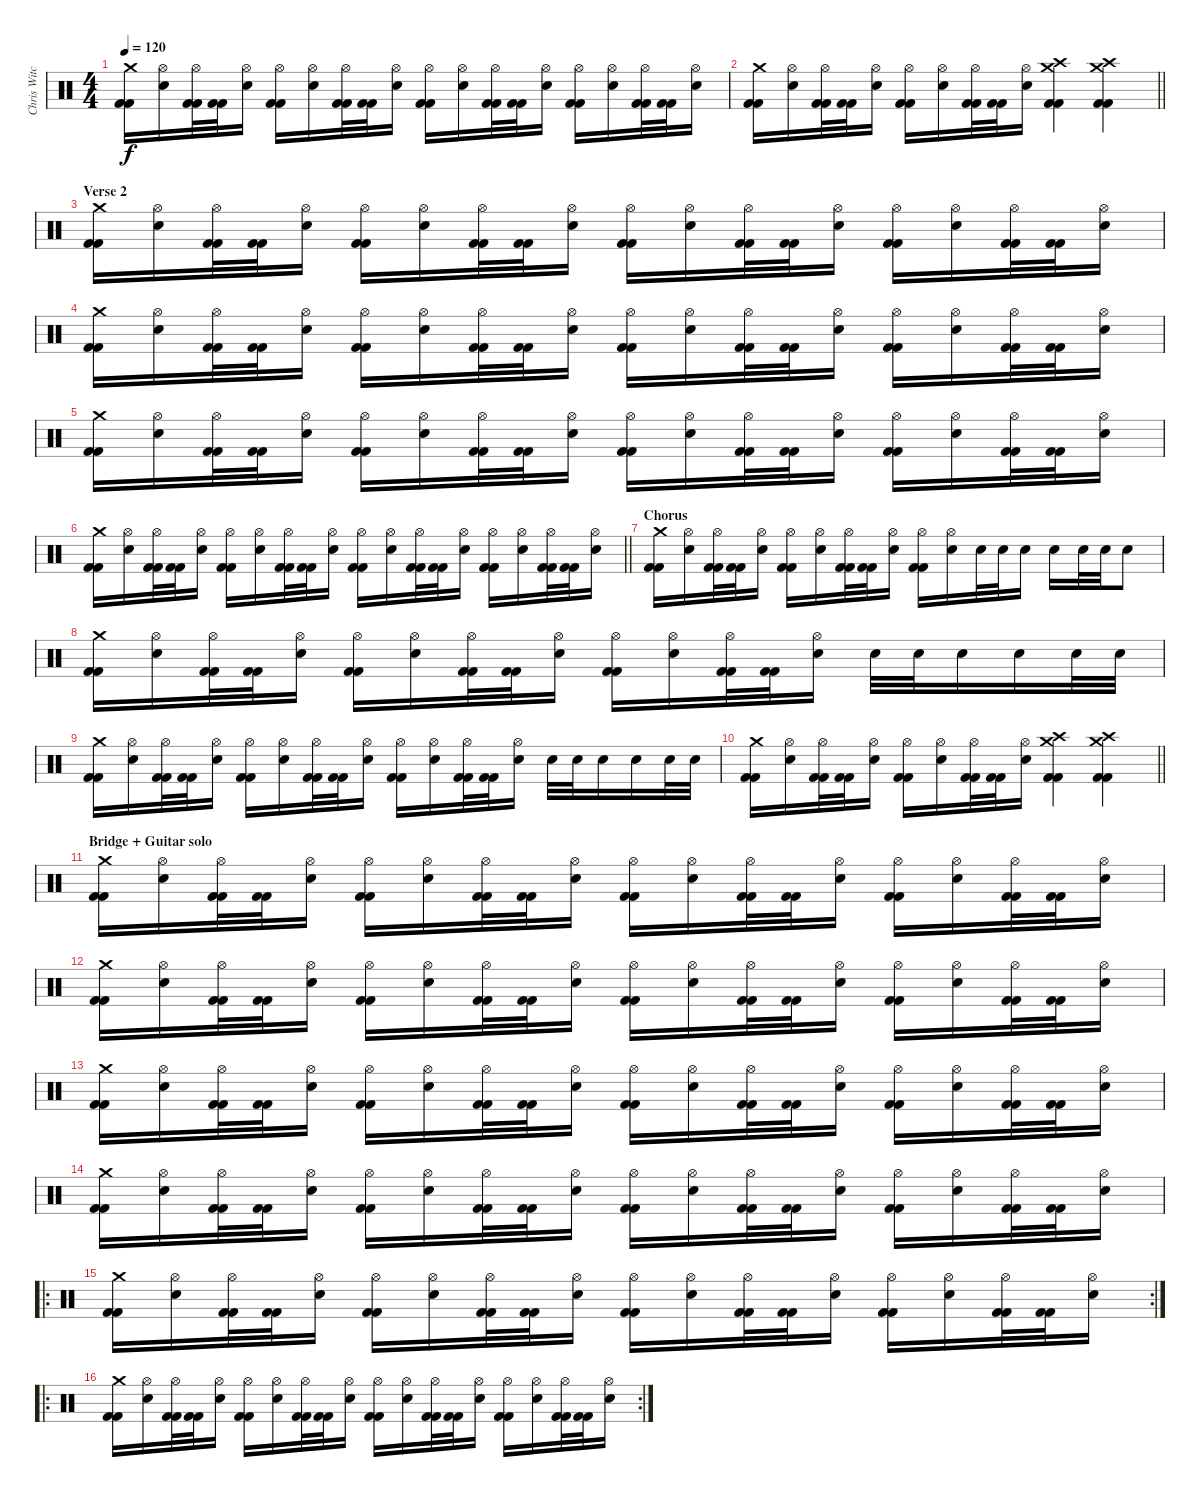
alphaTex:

\track ("Chris Witchhunter" "Chris Witc") {instrument percussion}
\staff {score}
\articulation defaults
\ts (4 4)
\tempo 120
\clef neutral
\ks c
("Crash medium (hit)" "Kick (hit) 2" "Kick (hit) 2").16{dy f} ("Hi-Hat (open)" "Snare (hit) 2").16 ("Hi-Hat (open)" "Kick (hit) 2" "Kick (hit) 2").32 ("Kick (hit) 2" "Kick (hit) 2").32 ("Hi-Hat (open)" "Snare (hit) 2").16 ("Hi-Hat (open)" "Kick (hit) 2" "Kick (hit) 2").16 ("Hi-Hat (open)" "Snare (hit) 2").16 ("Hi-Hat (open)" "Kick (hit) 2" "Kick (hit) 2").32 ("Kick (hit) 2" "Kick (hit) 2").32 ("Hi-Hat (open)" "Snare (hit) 2").16 ("Hi-Hat (open)" "Kick (hit) 2" "Kick (hit) 2").16 ("Hi-Hat (open)" "Snare (hit) 2").16 ("Hi-Hat (open)" "Kick (hit) 2" "Kick (hit) 2").32 ("Kick (hit) 2" "Kick (hit) 2").32 ("Hi-Hat (open)" "Snare (hit) 2").16 ("Hi-Hat (open)" "Kick (hit) 2" "Kick (hit) 2").16 ("Hi-Hat (open)" "Snare (hit) 2").16 ("Hi-Hat (open)" "Kick (hit) 2" "Kick (hit) 2").32 ("Kick (hit) 2" "Kick (hit) 2").32 ("Hi-Hat (open)" "Snare (hit) 2").16 |
\barLineRight lightlight
("Crash medium (hit)" "Kick (hit) 2" "Kick (hit) 2").16 ("Hi-Hat (open)" "Snare (hit) 2").16 ("Hi-Hat (open)" "Kick (hit) 2" "Kick (hit) 2").32 ("Kick (hit) 2" "Kick (hit) 2").32 ("Hi-Hat (open)" "Snare (hit) 2").16 ("Hi-Hat (open)" "Kick (hit) 2" "Kick (hit) 2").16 ("Hi-Hat (open)" "Snare (hit) 2").16 ("Hi-Hat (open)" "Kick (hit) 2" "Kick (hit) 2").32 ("Kick (hit) 2" "Kick (hit) 2").32 ("Hi-Hat (open)" "Snare (hit) 2").16 ("Crash high (hit)" "Crash medium (hit)" "Kick (hit) 2" "Kick (hit) 2").4 ("Crash high (hit)" "Crash medium (hit)" "Kick (hit) 2" "Kick (hit) 2").4 |
\section ("" "Verse 2")
("Crash medium (hit)" "Kick (hit) 2" "Kick (hit) 2").16 ("Hi-Hat (open)" "Snare (hit) 2").16 ("Hi-Hat (open)" "Kick (hit) 2" "Kick (hit) 2").32 ("Kick (hit) 2" "Kick (hit) 2").32 ("Hi-Hat (open)" "Snare (hit) 2").16 ("Hi-Hat (open)" "Kick (hit) 2" "Kick (hit) 2").16 ("Hi-Hat (open)" "Snare (hit) 2").16 ("Hi-Hat (open)" "Kick (hit) 2" "Kick (hit) 2").32 ("Kick (hit) 2" "Kick (hit) 2").32 ("Hi-Hat (open)" "Snare (hit) 2").16 ("Hi-Hat (open)" "Kick (hit) 2" "Kick (hit) 2").16 ("Hi-Hat (open)" "Snare (hit) 2").16 ("Hi-Hat (open)" "Kick (hit) 2" "Kick (hit) 2").32 ("Kick (hit) 2" "Kick (hit) 2").32 ("Hi-Hat (open)" "Snare (hit) 2").16 ("Hi-Hat (open)" "Kick (hit) 2" "Kick (hit) 2").16 ("Hi-Hat (open)" "Snare (hit) 2").16 ("Hi-Hat (open)" "Kick (hit) 2" "Kick (hit) 2").32 ("Kick (hit) 2" "Kick (hit) 2").32 ("Hi-Hat (open)" "Snare (hit) 2").16 |
("Crash medium (hit)" "Kick (hit) 2" "Kick (hit) 2").16 ("Hi-Hat (open)" "Snare (hit) 2").16 ("Hi-Hat (open)" "Kick (hit) 2" "Kick (hit) 2").32 ("Kick (hit) 2" "Kick (hit) 2").32 ("Hi-Hat (open)" "Snare (hit) 2").16 ("Hi-Hat (open)" "Kick (hit) 2" "Kick (hit) 2").16 ("Hi-Hat (open)" "Snare (hit) 2").16 ("Hi-Hat (open)" "Kick (hit) 2" "Kick (hit) 2").32 ("Kick (hit) 2" "Kick (hit) 2").32 ("Hi-Hat (open)" "Snare (hit) 2").16 ("Hi-Hat (open)" "Kick (hit) 2" "Kick (hit) 2").16 ("Hi-Hat (open)" "Snare (hit) 2").16 ("Hi-Hat (open)" "Kick (hit) 2" "Kick (hit) 2").32 ("Kick (hit) 2" "Kick (hit) 2").32 ("Hi-Hat (open)" "Snare (hit) 2").16 ("Hi-Hat (open)" "Kick (hit) 2" "Kick (hit) 2").16 ("Hi-Hat (open)" "Snare (hit) 2").16 ("Hi-Hat (open)" "Kick (hit) 2" "Kick (hit) 2").32 ("Kick (hit) 2" "Kick (hit) 2").32 ("Hi-Hat (open)" "Snare (hit) 2").16 |
("Crash medium (hit)" "Kick (hit) 2" "Kick (hit) 2").16 ("Hi-Hat (open)" "Snare (hit) 2").16 ("Hi-Hat (open)" "Kick (hit) 2" "Kick (hit) 2").32 ("Kick (hit) 2" "Kick (hit) 2").32 ("Hi-Hat (open)" "Snare (hit) 2").16 ("Hi-Hat (open)" "Kick (hit) 2" "Kick (hit) 2").16 ("Hi-Hat (open)" "Snare (hit) 2").16 ("Hi-Hat (open)" "Kick (hit) 2" "Kick (hit) 2").32 ("Kick (hit) 2" "Kick (hit) 2").32 ("Hi-Hat (open)" "Snare (hit) 2").16 ("Hi-Hat (open)" "Kick (hit) 2" "Kick (hit) 2").16 ("Hi-Hat (open)" "Snare (hit) 2").16 ("Hi-Hat (open)" "Kick (hit) 2" "Kick (hit) 2").32 ("Kick (hit) 2" "Kick (hit) 2").32 ("Hi-Hat (open)" "Snare (hit) 2").16 ("Hi-Hat (open)" "Kick (hit) 2" "Kick (hit) 2").16 ("Hi-Hat (open)" "Snare (hit) 2").16 ("Hi-Hat (open)" "Kick (hit) 2" "Kick (hit) 2").32 ("Kick (hit) 2" "Kick (hit) 2").32 ("Hi-Hat (open)" "Snare (hit) 2").16 |
\barLineRight lightlight
("Crash medium (hit)" "Kick (hit) 2" "Kick (hit) 2").16 ("Hi-Hat (open)" "Snare (hit) 2").16 ("Hi-Hat (open)" "Kick (hit) 2" "Kick (hit) 2").32 ("Kick (hit) 2" "Kick (hit) 2").32 ("Hi-Hat (open)" "Snare (hit) 2").16 ("Hi-Hat (open)" "Kick (hit) 2" "Kick (hit) 2").16 ("Hi-Hat (open)" "Snare (hit) 2").16 ("Hi-Hat (open)" "Kick (hit) 2" "Kick (hit) 2").32 ("Kick (hit) 2" "Kick (hit) 2").32 ("Hi-Hat (open)" "Snare (hit) 2").16 ("Hi-Hat (open)" "Kick (hit) 2" "Kick (hit) 2").16 ("Hi-Hat (open)" "Snare (hit) 2").16 ("Hi-Hat (open)" "Kick (hit) 2" "Kick (hit) 2").32 ("Kick (hit) 2" "Kick (hit) 2").32 ("Hi-Hat (open)" "Snare (hit) 2").16 ("Hi-Hat (open)" "Kick (hit) 2" "Kick (hit) 2").16 ("Hi-Hat (open)" "Snare (hit) 2").16 ("Hi-Hat (open)" "Kick (hit) 2" "Kick (hit) 2").32 ("Kick (hit) 2" "Kick (hit) 2").32 ("Hi-Hat (open)" "Snare (hit) 2").16 |
\section ("" "Chorus")
("Crash medium (hit)" "Kick (hit) 2" "Kick (hit) 2").16 ("Hi-Hat (open)" "Snare (hit) 2").16 ("Hi-Hat (open)" "Kick (hit) 2" "Kick (hit) 2").32 ("Kick (hit) 2" "Kick (hit) 2").32 ("Hi-Hat (open)" "Snare (hit) 2").16 ("Hi-Hat (open)" "Kick (hit) 2" "Kick (hit) 2").16 ("Hi-Hat (open)" "Snare (hit) 2").16 ("Hi-Hat (open)" "Kick (hit) 2" "Kick (hit) 2").32 ("Kick (hit) 2" "Kick (hit) 2").32 ("Hi-Hat (open)" "Snare (hit) 2").16 ("Hi-Hat (open)" "Kick (hit) 2" "Kick (hit) 2").16 ("Hi-Hat (open)" "Snare (hit) 2").16 "Snare (hit) 2".32 "Snare (hit) 2".32 "Snare (hit) 2".16 "Snare (hit) 2".16 "Snare (hit) 2".32 "Snare (hit) 2".32 "Snare (hit) 2".8 |
("Crash medium (hit)" "Kick (hit) 2" "Kick (hit) 2").16 ("Hi-Hat (open)" "Snare (hit) 2").16 ("Hi-Hat (open)" "Kick (hit) 2" "Kick (hit) 2").32 ("Kick (hit) 2" "Kick (hit) 2").32 ("Hi-Hat (open)" "Snare (hit) 2").16 ("Hi-Hat (open)" "Kick (hit) 2" "Kick (hit) 2").16 ("Hi-Hat (open)" "Snare (hit) 2").16 ("Hi-Hat (open)" "Kick (hit) 2" "Kick (hit) 2").32 ("Kick (hit) 2" "Kick (hit) 2").32 ("Hi-Hat (open)" "Snare (hit) 2").16 ("Hi-Hat (open)" "Kick (hit) 2" "Kick (hit) 2").16 ("Hi-Hat (open)" "Snare (hit) 2").16 ("Hi-Hat (open)" "Kick (hit) 2" "Kick (hit) 2").32 ("Kick (hit) 2" "Kick (hit) 2").32 ("Hi-Hat (open)" "Snare (hit) 2").16 "Snare (hit) 2".32 "Snare (hit) 2".32 "Snare (hit) 2".16 "Snare (hit) 2".16 "Snare (hit) 2".32 "Snare (hit) 2".32 |
("Crash medium (hit)" "Kick (hit) 2" "Kick (hit) 2").16 ("Hi-Hat (open)" "Snare (hit) 2").16 ("Hi-Hat (open)" "Kick (hit) 2" "Kick (hit) 2").32 ("Kick (hit) 2" "Kick (hit) 2").32 ("Hi-Hat (open)" "Snare (hit) 2").16 ("Hi-Hat (open)" "Kick (hit) 2" "Kick (hit) 2").16 ("Hi-Hat (open)" "Snare (hit) 2").16 ("Hi-Hat (open)" "Kick (hit) 2" "Kick (hit) 2").32 ("Kick (hit) 2" "Kick (hit) 2").32 ("Hi-Hat (open)" "Snare (hit) 2").16 ("Hi-Hat (open)" "Kick (hit) 2" "Kick (hit) 2").16 ("Hi-Hat (open)" "Snare (hit) 2").16 ("Hi-Hat (open)" "Kick (hit) 2" "Kick (hit) 2").32 ("Kick (hit) 2" "Kick (hit) 2").32 ("Hi-Hat (open)" "Snare (hit) 2").16 "Snare (hit) 2".32 "Snare (hit) 2".32 "Snare (hit) 2".16 "Snare (hit) 2".16 "Snare (hit) 2".32 "Snare (hit) 2".32 |
\barLineRight lightlight
("Crash medium (hit)" "Kick (hit) 2" "Kick (hit) 2").16 ("Hi-Hat (open)" "Snare (hit) 2").16 ("Hi-Hat (open)" "Kick (hit) 2" "Kick (hit) 2").32 ("Kick (hit) 2" "Kick (hit) 2").32 ("Hi-Hat (open)" "Snare (hit) 2").16 ("Hi-Hat (open)" "Kick (hit) 2" "Kick (hit) 2").16 ("Hi-Hat (open)" "Snare (hit) 2").16 ("Hi-Hat (open)" "Kick (hit) 2" "Kick (hit) 2").32 ("Kick (hit) 2" "Kick (hit) 2").32 ("Hi-Hat (open)" "Snare (hit) 2").16 ("Crash high (hit)" "Crash medium (hit)" "Kick (hit) 2" "Kick (hit) 2").4 ("Crash high (hit)" "Crash medium (hit)" "Kick (hit) 2" "Kick (hit) 2").4 |
\section ("" "Bridge + Guitar solo")
("Crash medium (hit)" "Kick (hit) 2" "Kick (hit) 2").16 ("Hi-Hat (open)" "Snare (hit) 2").16 ("Hi-Hat (open)" "Kick (hit) 2" "Kick (hit) 2").32 ("Kick (hit) 2" "Kick (hit) 2").32 ("Hi-Hat (open)" "Snare (hit) 2").16 ("Hi-Hat (open)" "Kick (hit) 2" "Kick (hit) 2").16 ("Hi-Hat (open)" "Snare (hit) 2").16 ("Hi-Hat (open)" "Kick (hit) 2" "Kick (hit) 2").32 ("Kick (hit) 2" "Kick (hit) 2").32 ("Hi-Hat (open)" "Snare (hit) 2").16 ("Hi-Hat (open)" "Kick (hit) 2" "Kick (hit) 2").16 ("Hi-Hat (open)" "Snare (hit) 2").16 ("Hi-Hat (open)" "Kick (hit) 2" "Kick (hit) 2").32 ("Kick (hit) 2" "Kick (hit) 2").32 ("Hi-Hat (open)" "Snare (hit) 2").16 ("Hi-Hat (open)" "Kick (hit) 2" "Kick (hit) 2").16 ("Hi-Hat (open)" "Snare (hit) 2").16 ("Hi-Hat (open)" "Kick (hit) 2" "Kick (hit) 2").32 ("Kick (hit) 2" "Kick (hit) 2").32 ("Hi-Hat (open)" "Snare (hit) 2").16 |
("Crash medium (hit)" "Kick (hit) 2" "Kick (hit) 2").16 ("Hi-Hat (open)" "Snare (hit) 2").16 ("Hi-Hat (open)" "Kick (hit) 2" "Kick (hit) 2").32 ("Kick (hit) 2" "Kick (hit) 2").32 ("Hi-Hat (open)" "Snare (hit) 2").16 ("Hi-Hat (open)" "Kick (hit) 2" "Kick (hit) 2").16 ("Hi-Hat (open)" "Snare (hit) 2").16 ("Hi-Hat (open)" "Kick (hit) 2" "Kick (hit) 2").32 ("Kick (hit) 2" "Kick (hit) 2").32 ("Hi-Hat (open)" "Snare (hit) 2").16 ("Hi-Hat (open)" "Kick (hit) 2" "Kick (hit) 2").16 ("Hi-Hat (open)" "Snare (hit) 2").16 ("Hi-Hat (open)" "Kick (hit) 2" "Kick (hit) 2").32 ("Kick (hit) 2" "Kick (hit) 2").32 ("Hi-Hat (open)" "Snare (hit) 2").16 ("Hi-Hat (open)" "Kick (hit) 2" "Kick (hit) 2").16 ("Hi-Hat (open)" "Snare (hit) 2").16 ("Hi-Hat (open)" "Kick (hit) 2" "Kick (hit) 2").32 ("Kick (hit) 2" "Kick (hit) 2").32 ("Hi-Hat (open)" "Snare (hit) 2").16 |
("Crash medium (hit)" "Kick (hit) 2" "Kick (hit) 2").16 ("Hi-Hat (open)" "Snare (hit) 2").16 ("Hi-Hat (open)" "Kick (hit) 2" "Kick (hit) 2").32 ("Kick (hit) 2" "Kick (hit) 2").32 ("Hi-Hat (open)" "Snare (hit) 2").16 ("Hi-Hat (open)" "Kick (hit) 2" "Kick (hit) 2").16 ("Hi-Hat (open)" "Snare (hit) 2").16 ("Hi-Hat (open)" "Kick (hit) 2" "Kick (hit) 2").32 ("Kick (hit) 2" "Kick (hit) 2").32 ("Hi-Hat (open)" "Snare (hit) 2").16 ("Hi-Hat (open)" "Kick (hit) 2" "Kick (hit) 2").16 ("Hi-Hat (open)" "Snare (hit) 2").16 ("Hi-Hat (open)" "Kick (hit) 2" "Kick (hit) 2").32 ("Kick (hit) 2" "Kick (hit) 2").32 ("Hi-Hat (open)" "Snare (hit) 2").16 ("Hi-Hat (open)" "Kick (hit) 2" "Kick (hit) 2").16 ("Hi-Hat (open)" "Snare (hit) 2").16 ("Hi-Hat (open)" "Kick (hit) 2" "Kick (hit) 2").32 ("Kick (hit) 2" "Kick (hit) 2").32 ("Hi-Hat (open)" "Snare (hit) 2").16 |
("Crash medium (hit)" "Kick (hit) 2" "Kick (hit) 2").16 ("Hi-Hat (open)" "Snare (hit) 2").16 ("Hi-Hat (open)" "Kick (hit) 2" "Kick (hit) 2").32 ("Kick (hit) 2" "Kick (hit) 2").32 ("Hi-Hat (open)" "Snare (hit) 2").16 ("Hi-Hat (open)" "Kick (hit) 2" "Kick (hit) 2").16 ("Hi-Hat (open)" "Snare (hit) 2").16 ("Hi-Hat (open)" "Kick (hit) 2" "Kick (hit) 2").32 ("Kick (hit) 2" "Kick (hit) 2").32 ("Hi-Hat (open)" "Snare (hit) 2").16 ("Hi-Hat (open)" "Kick (hit) 2" "Kick (hit) 2").16 ("Hi-Hat (open)" "Snare (hit) 2").16 ("Hi-Hat (open)" "Kick (hit) 2" "Kick (hit) 2").32 ("Kick (hit) 2" "Kick (hit) 2").32 ("Hi-Hat (open)" "Snare (hit) 2").16 ("Hi-Hat (open)" "Kick (hit) 2" "Kick (hit) 2").16 ("Hi-Hat (open)" "Snare (hit) 2").16 ("Hi-Hat (open)" "Kick (hit) 2" "Kick (hit) 2").32 ("Kick (hit) 2" "Kick (hit) 2").32 ("Hi-Hat (open)" "Snare (hit) 2").16 |
\ro
\rc 2
("Crash medium (hit)" "Kick (hit) 2" "Kick (hit) 2").16 ("Hi-Hat (open)" "Snare (hit) 2").16 ("Hi-Hat (open)" "Kick (hit) 2" "Kick (hit) 2").32 ("Kick (hit) 2" "Kick (hit) 2").32 ("Hi-Hat (open)" "Snare (hit) 2").16 ("Hi-Hat (open)" "Kick (hit) 2" "Kick (hit) 2").16 ("Hi-Hat (open)" "Snare (hit) 2").16 ("Hi-Hat (open)" "Kick (hit) 2" "Kick (hit) 2").32 ("Kick (hit) 2" "Kick (hit) 2").32 ("Hi-Hat (open)" "Snare (hit) 2").16 ("Hi-Hat (open)" "Kick (hit) 2" "Kick (hit) 2").16 ("Hi-Hat (open)" "Snare (hit) 2").16 ("Hi-Hat (open)" "Kick (hit) 2" "Kick (hit) 2").32 ("Kick (hit) 2" "Kick (hit) 2").32 ("Hi-Hat (open)" "Snare (hit) 2").16 ("Hi-Hat (open)" "Kick (hit) 2" "Kick (hit) 2").16 ("Hi-Hat (open)" "Snare (hit) 2").16 ("Hi-Hat (open)" "Kick (hit) 2" "Kick (hit) 2").32 ("Kick (hit) 2" "Kick (hit) 2").32 ("Hi-Hat (open)" "Snare (hit) 2").16 |
\ro
\rc 2
("Crash medium (hit)" "Kick (hit) 2" "Kick (hit) 2").16 ("Hi-Hat (open)" "Snare (hit) 2").16 ("Hi-Hat (open)" "Kick (hit) 2" "Kick (hit) 2").32 ("Kick (hit) 2" "Kick (hit) 2").32 ("Hi-Hat (open)" "Snare (hit) 2").16 ("Hi-Hat (open)" "Kick (hit) 2" "Kick (hit) 2").16 ("Hi-Hat (open)" "Snare (hit) 2").16 ("Hi-Hat (open)" "Kick (hit) 2" "Kick (hit) 2").32 ("Kick (hit) 2" "Kick (hit) 2").32 ("Hi-Hat (open)" "Snare (hit) 2").16 ("Hi-Hat (open)" "Kick (hit) 2" "Kick (hit) 2").16 ("Hi-Hat (open)" "Snare (hit) 2").16 ("Hi-Hat (open)" "Kick (hit) 2" "Kick (hit) 2").32 ("Kick (hit) 2" "Kick (hit) 2").32 ("Hi-Hat (open)" "Snare (hit) 2").16 ("Hi-Hat (open)" "Kick (hit) 2" "Kick (hit) 2").16 ("Hi-Hat (open)" "Snare (hit) 2").16 ("Hi-Hat (open)" "Kick (hit) 2" "Kick (hit) 2").32 ("Kick (hit) 2" "Kick (hit) 2").32 ("Hi-Hat (open)" "Snare (hit) 2").16
